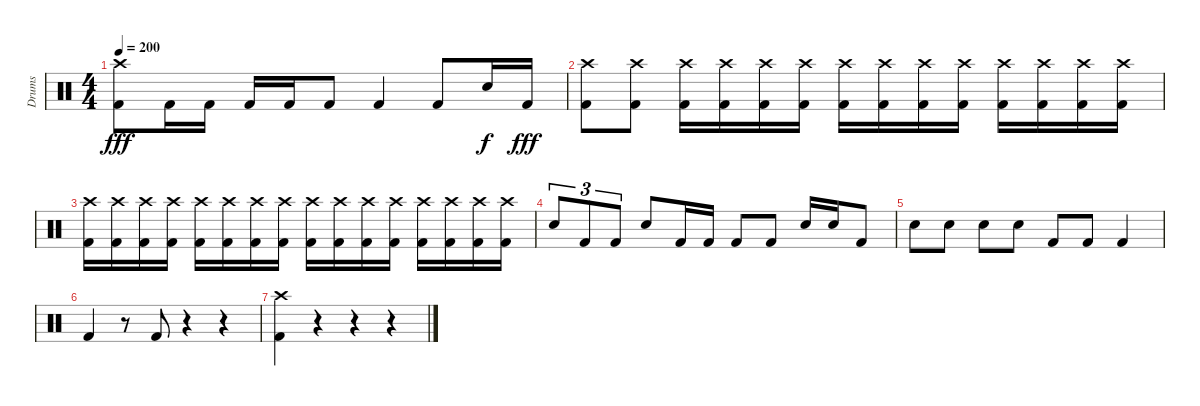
\track ("Drums" "Drums") {instrument percussion}
\staff {score}
\articulation defaults
\ts (4 4)
\tempo 200
\clef neutral
\ks c
("Crash high (hit)" "Kick (hit) 2").8{dy fff} "Kick (hit) 2".16 "Kick (hit) 2".16 "Kick (hit) 2".16 "Kick (hit) 2".16 "Kick (hit) 2".8 "Kick (hit) 2".4 "Kick (hit) 2".8 "Electric Snare (hit)".16{dy f} "Kick (hit) 2".16{dy fff} |
("Crash high (hit)" "Kick (hit) 2").8 ("Crash high (hit)" "Kick (hit) 2").8 ("Crash high (hit)" "Kick (hit) 2").16 ("Crash high (hit)" "Kick (hit) 2").16 ("Crash high (hit)" "Kick (hit) 2").16 ("Crash high (hit)" "Kick (hit) 2").16 ("Crash high (hit)" "Kick (hit) 2").16 ("Crash high (hit)" "Kick (hit) 2").16 ("Crash high (hit)" "Kick (hit) 2").16 ("Crash high (hit)" "Kick (hit) 2").16 ("Crash high (hit)" "Kick (hit) 2").16 ("Crash high (hit)" "Kick (hit) 2").16 ("Crash high (hit)" "Kick (hit) 2").16 ("Crash high (hit)" "Kick (hit) 2").16 |
("Crash high (hit)" "Kick (hit) 2").16 ("Crash high (hit)" "Kick (hit) 2").16 ("Crash high (hit)" "Kick (hit) 2").16 ("Crash high (hit)" "Kick (hit) 2").16 ("Crash high (hit)" "Kick (hit) 2").16 ("Crash high (hit)" "Kick (hit) 2").16 ("Crash high (hit)" "Kick (hit) 2").16 ("Crash high (hit)" "Kick (hit) 2").16 ("Crash high (hit)" "Kick (hit) 2").16 ("Crash high (hit)" "Kick (hit) 2").16 ("Crash high (hit)" "Kick (hit) 2").16 ("Crash high (hit)" "Kick (hit) 2").16 ("Crash high (hit)" "Kick (hit) 2").16 ("Crash high (hit)" "Kick (hit) 2").16 ("Crash high (hit)" "Kick (hit) 2").16 ("Crash high (hit)" "Kick (hit) 2").16 |
"Electric Snare (hit)".8{tu (3 2)} "Kick (hit) 2".8{tu (3 2)} "Kick (hit) 2".8{tu (3 2)} "Electric Snare (hit)".8 "Kick (hit) 2".16 "Kick (hit) 2".16 "Kick (hit) 2".8 "Kick (hit) 2".8 "Electric Snare (hit)".16 "Electric Snare (hit)".16 "Kick (hit) 2".8 |
"Electric Snare (hit)".8 "Electric Snare (hit)".8 "Electric Snare (hit)".8 "Electric Snare (hit)".8 "Kick (hit) 2".8 "Kick (hit) 2".8 "Kick (hit) 2".4 |
"Kick (hit) 2".4 r.8 "Kick (hit) 2".8 r.4 r.4 |
("Crash high (hit)" "Kick (hit) 2").4 r.4 r.4 r.4
